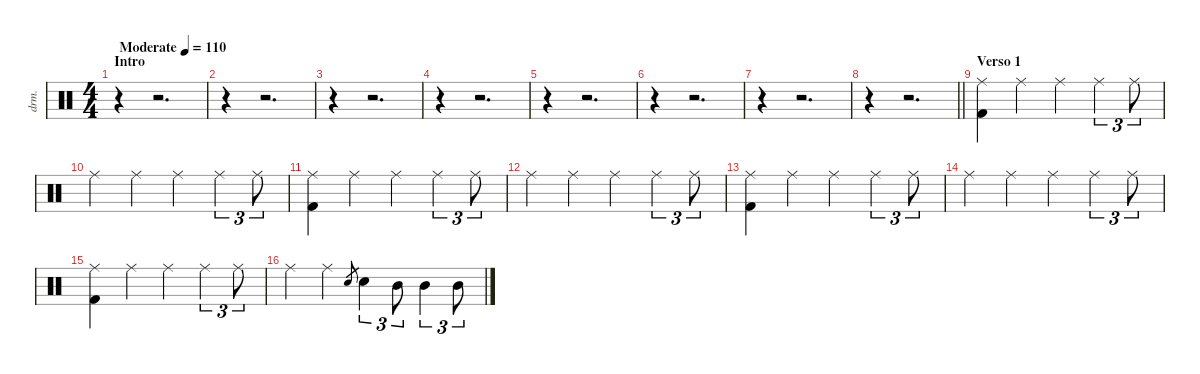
\defaultSystemsLayout 4
\hideDynamics
\bracketExtendMode nobrackets
\otherSystemsTrackNameOrientation horizontal
\track ("Drums" "drm.") {instrument percussion}
\staff {score}
\articulation defaults
\ts (4 4)
\beaming (8 2 2 2 2)
\section ("" "Intro")
\tempo (110 "Moderate")
\clef neutral
\ks c
r.4{dy f beam Down} r.2{d beam Down} |
r.4{beam Down} r.2{d beam Down} |
r.4{beam Down} r.2{d beam Down} |
r.4{beam Down} r.2{d beam Down} |
r.4{beam Down} r.2{d beam Down} |
r.4{beam Down} r.2{d beam Down} |
r.4{beam Down} r.2{d beam Down} |
\barLineRight lightlight
r.4{beam Down} r.2{d beam Down} |
\section ("" "Verso 1")
("Ride (middle)" "Kick (hit) 2").4{beam Down} "Ride (middle)".4{dy mp beam Down} "Ride (middle)".4{beam Down} "Ride (middle)".4{tu (3 2) beam Down} "Ride (middle)".8{tu (3 2) beam Down} |
"Ride (middle)".4{beam Down} "Ride (middle)".4{beam Down} "Ride (middle)".4{beam Down} "Ride (middle)".4{tu (3 2) beam Down} "Ride (middle)".8{tu (3 2) beam Down} |
("Ride (middle)" "Kick (hit) 2").4{dy f beam Down} "Ride (middle)".4{dy mp beam Down} "Ride (middle)".4{beam Down} "Ride (middle)".4{tu (3 2) beam Down} "Ride (middle)".8{tu (3 2) beam Down} |
"Ride (middle)".4{beam Down} "Ride (middle)".4{beam Down} "Ride (middle)".4{beam Down} "Ride (middle)".4{tu (3 2) beam Down} "Ride (middle)".8{tu (3 2) beam Down} |
("Ride (middle)" "Kick (hit) 2").4{dy f beam Down} "Ride (middle)".4{dy mp beam Down} "Ride (middle)".4{beam Down} "Ride (middle)".4{tu (3 2) beam Down} "Ride (middle)".8{tu (3 2) beam Down} |
"Ride (middle)".4{beam Down} "Ride (middle)".4{beam Down} "Ride (middle)".4{beam Down} "Ride (middle)".4{tu (3 2) beam Down} "Ride (middle)".8{tu (3 2) beam Down} |
("Ride (middle)" "Kick (hit) 2").4{dy f beam Down} "Ride (middle)".4{dy mp beam Down} "Ride (middle)".4{beam Down} "Ride (middle)".4{tu (3 2) beam Down} "Ride (middle)".8{tu (3 2) beam Down} |
"Ride (middle)".4{beam Down} "Ride (middle)".4{beam Down} "Snare (hit) 2".8{gr dy p beam Up} "Snare (hit) 2".4{tu (3 2) dy f beam Down} "Mid Tom (hit)".8{tu (3 2) beam Down} "Mid Tom (hit)".4{tu (3 2) beam Down} "Mid Tom (hit)".8{tu (3 2) beam Down}
